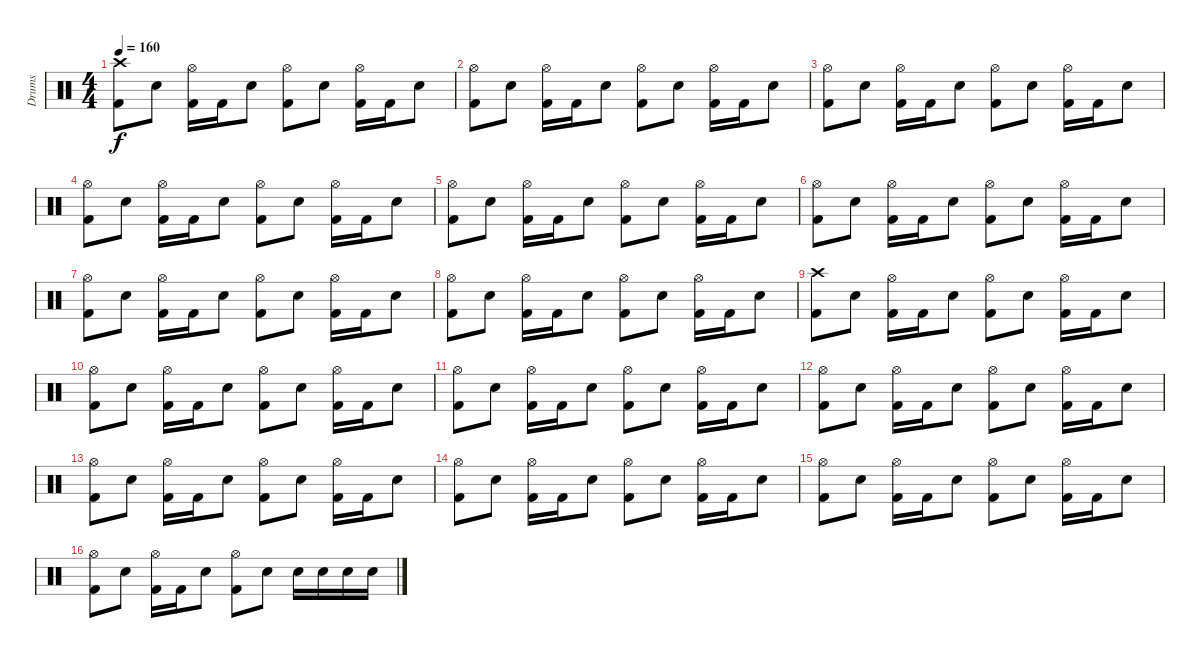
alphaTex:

\track ("Drums" "Drums") {instrument percussion}
\staff {score}
\articulation defaults
\ts (4 4)
\tempo 160
\clef neutral
\ks c
("Crash high (hit)" "Kick (hit) 2").8{dy f} "Electric Snare (hit)".8 ("Hi-Hat (open)" "Kick (hit) 2").16 "Kick (hit) 2".16 "Electric Snare (hit)".8 ("Hi-Hat (open)" "Kick (hit) 2").8 "Electric Snare (hit)".8 ("Hi-Hat (open)" "Kick (hit) 2").16 "Kick (hit) 2".16 "Electric Snare (hit)".8 |
("Hi-Hat (open)" "Kick (hit) 2").8 "Electric Snare (hit)".8 ("Hi-Hat (open)" "Kick (hit) 2").16 "Kick (hit) 2".16 "Electric Snare (hit)".8 ("Hi-Hat (open)" "Kick (hit) 2").8 "Electric Snare (hit)".8 ("Hi-Hat (open)" "Kick (hit) 2").16 "Kick (hit) 2".16 "Electric Snare (hit)".8 |
("Hi-Hat (open)" "Kick (hit) 2").8 "Electric Snare (hit)".8 ("Hi-Hat (open)" "Kick (hit) 2").16 "Kick (hit) 2".16 "Electric Snare (hit)".8 ("Hi-Hat (open)" "Kick (hit) 2").8 "Electric Snare (hit)".8 ("Hi-Hat (open)" "Kick (hit) 2").16 "Kick (hit) 2".16 "Electric Snare (hit)".8 |
("Hi-Hat (open)" "Kick (hit) 2").8 "Electric Snare (hit)".8 ("Hi-Hat (open)" "Kick (hit) 2").16 "Kick (hit) 2".16 "Electric Snare (hit)".8 ("Hi-Hat (open)" "Kick (hit) 2").8 "Electric Snare (hit)".8 ("Hi-Hat (open)" "Kick (hit) 2").16 "Kick (hit) 2".16 "Electric Snare (hit)".8 |
("Hi-Hat (open)" "Kick (hit) 2").8 "Electric Snare (hit)".8 ("Hi-Hat (open)" "Kick (hit) 2").16 "Kick (hit) 2".16 "Electric Snare (hit)".8 ("Hi-Hat (open)" "Kick (hit) 2").8 "Electric Snare (hit)".8 ("Hi-Hat (open)" "Kick (hit) 2").16 "Kick (hit) 2".16 "Electric Snare (hit)".8 |
("Hi-Hat (open)" "Kick (hit) 2").8 "Electric Snare (hit)".8 ("Hi-Hat (open)" "Kick (hit) 2").16 "Kick (hit) 2".16 "Electric Snare (hit)".8 ("Hi-Hat (open)" "Kick (hit) 2").8 "Electric Snare (hit)".8 ("Hi-Hat (open)" "Kick (hit) 2").16 "Kick (hit) 2".16 "Electric Snare (hit)".8 |
("Hi-Hat (open)" "Kick (hit) 2").8 "Electric Snare (hit)".8 ("Hi-Hat (open)" "Kick (hit) 2").16 "Kick (hit) 2".16 "Electric Snare (hit)".8 ("Hi-Hat (open)" "Kick (hit) 2").8 "Electric Snare (hit)".8 ("Hi-Hat (open)" "Kick (hit) 2").16 "Kick (hit) 2".16 "Electric Snare (hit)".8 |
("Hi-Hat (open)" "Kick (hit) 2").8 "Electric Snare (hit)".8 ("Hi-Hat (open)" "Kick (hit) 2").16 "Kick (hit) 2".16 "Electric Snare (hit)".8 ("Hi-Hat (open)" "Kick (hit) 2").8 "Electric Snare (hit)".8 ("Hi-Hat (open)" "Kick (hit) 2").16 "Kick (hit) 2".16 "Electric Snare (hit)".8 |
("Crash high (hit)" "Kick (hit) 2").8 "Electric Snare (hit)".8 ("Hi-Hat (open)" "Kick (hit) 2").16 "Kick (hit) 2".16 "Electric Snare (hit)".8 ("Hi-Hat (open)" "Kick (hit) 2").8 "Electric Snare (hit)".8 ("Hi-Hat (open)" "Kick (hit) 2").16 "Kick (hit) 2".16 "Electric Snare (hit)".8 |
("Hi-Hat (open)" "Kick (hit) 2").8 "Electric Snare (hit)".8 ("Hi-Hat (open)" "Kick (hit) 2").16 "Kick (hit) 2".16 "Electric Snare (hit)".8 ("Hi-Hat (open)" "Kick (hit) 2").8 "Electric Snare (hit)".8 ("Hi-Hat (open)" "Kick (hit) 2").16 "Kick (hit) 2".16 "Electric Snare (hit)".8 |
("Hi-Hat (open)" "Kick (hit) 2").8 "Electric Snare (hit)".8 ("Hi-Hat (open)" "Kick (hit) 2").16 "Kick (hit) 2".16 "Electric Snare (hit)".8 ("Hi-Hat (open)" "Kick (hit) 2").8 "Electric Snare (hit)".8 ("Hi-Hat (open)" "Kick (hit) 2").16 "Kick (hit) 2".16 "Electric Snare (hit)".8 |
("Hi-Hat (open)" "Kick (hit) 2").8 "Electric Snare (hit)".8 ("Hi-Hat (open)" "Kick (hit) 2").16 "Kick (hit) 2".16 "Electric Snare (hit)".8 ("Hi-Hat (open)" "Kick (hit) 2").8 "Electric Snare (hit)".8 ("Hi-Hat (open)" "Kick (hit) 2").16 "Kick (hit) 2".16 "Electric Snare (hit)".8 |
("Hi-Hat (open)" "Kick (hit) 2").8 "Electric Snare (hit)".8 ("Hi-Hat (open)" "Kick (hit) 2").16 "Kick (hit) 2".16 "Electric Snare (hit)".8 ("Hi-Hat (open)" "Kick (hit) 2").8 "Electric Snare (hit)".8 ("Hi-Hat (open)" "Kick (hit) 2").16 "Kick (hit) 2".16 "Electric Snare (hit)".8 |
("Hi-Hat (open)" "Kick (hit) 2").8 "Electric Snare (hit)".8 ("Hi-Hat (open)" "Kick (hit) 2").16 "Kick (hit) 2".16 "Electric Snare (hit)".8 ("Hi-Hat (open)" "Kick (hit) 2").8 "Electric Snare (hit)".8 ("Hi-Hat (open)" "Kick (hit) 2").16 "Kick (hit) 2".16 "Electric Snare (hit)".8 |
("Hi-Hat (open)" "Kick (hit) 2").8 "Electric Snare (hit)".8 ("Hi-Hat (open)" "Kick (hit) 2").16 "Kick (hit) 2".16 "Electric Snare (hit)".8 ("Hi-Hat (open)" "Kick (hit) 2").8 "Electric Snare (hit)".8 ("Hi-Hat (open)" "Kick (hit) 2").16 "Kick (hit) 2".16 "Electric Snare (hit)".8 |
("Hi-Hat (open)" "Kick (hit) 2").8 "Electric Snare (hit)".8 ("Hi-Hat (open)" "Kick (hit) 2").16 "Kick (hit) 2".16 "Electric Snare (hit)".8 ("Hi-Hat (open)" "Kick (hit) 2").8 "Electric Snare (hit)".8 "Electric Snare (hit)".16 "Electric Snare (hit)".16 "Electric Snare (hit)".16 "Electric Snare (hit)".16
